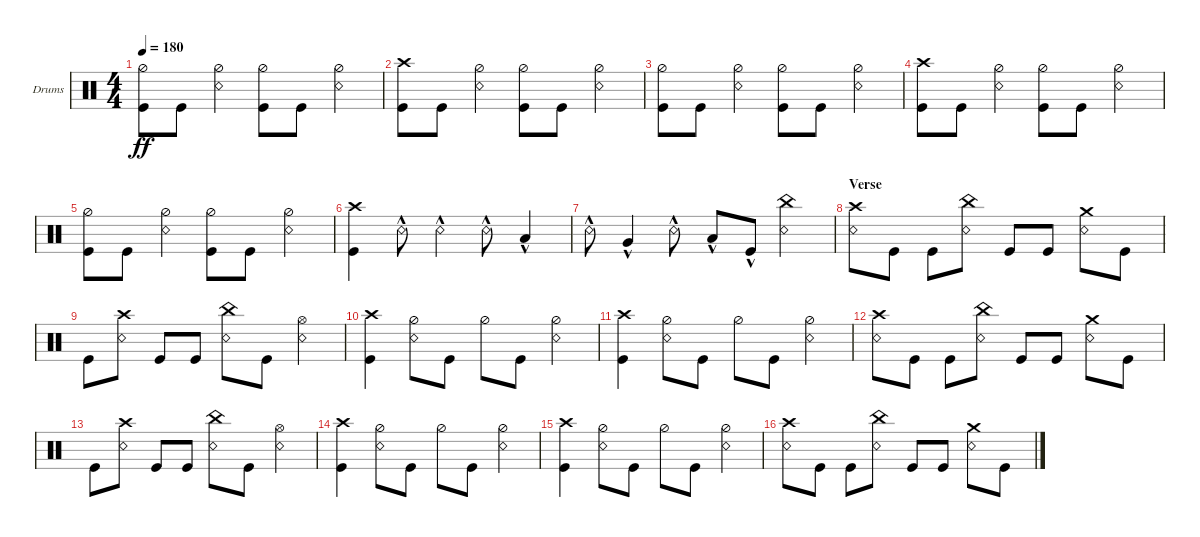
\defaultSystemsLayout 4
\bracketExtendMode groupsimilarinstruments
\firstSystemTrackNameOrientation horizontal
\otherSystemsTrackNameOrientation horizontal
\track ("Drumkit" "Drums") {instrument percussion}
\staff {score}
\articulation defaults
\ts (4 4)
\tempo 180
\clef neutral
\ks c
("Kick (hit)" "Hi-Hat (half)").8{dy ff} "Kick (hit)".8 ("Hi-Hat (half)" "Snare (rim shot)").4 ("Kick (hit)" "Hi-Hat (half)").8 "Kick (hit)".8 ("Hi-Hat (half)" "Snare (rim shot)").4 |
("Kick (hit)" "Crash high (hit)").8 "Kick (hit)".8 ("Hi-Hat (half)" "Snare (rim shot)").4 ("Kick (hit)" "Hi-Hat (half)").8 "Kick (hit)".8 ("Hi-Hat (half)" "Snare (rim shot)").4 |
("Kick (hit)" "Hi-Hat (half)").8 "Kick (hit)".8 ("Hi-Hat (half)" "Snare (rim shot)").4 ("Kick (hit)" "Hi-Hat (half)").8 "Kick (hit)".8 ("Hi-Hat (half)" "Snare (rim shot)").4 |
("Kick (hit)" "Crash high (hit)").8 "Kick (hit)".8 ("Hi-Hat (half)" "Snare (rim shot)").4 ("Kick (hit)" "Hi-Hat (half)").8 "Kick (hit)".8 ("Hi-Hat (half)" "Snare (rim shot)").4 |
("Kick (hit)" "Hi-Hat (half)").8 "Kick (hit)".8 ("Hi-Hat (half)" "Snare (rim shot)").4 ("Kick (hit)" "Hi-Hat (half)").8 "Kick (hit)".8 ("Hi-Hat (half)" "Snare (rim shot)").4 |
("Crash high (hit)" "Kick (hit)").4 "Snare (rim shot)"{hac}.8 "Snare (rim shot)"{hac}.4 "Snare (rim shot)"{hac}.8 "Low Tom (hit)"{hac}.4 |
"Snare (rim shot)"{hac}.8 "Very Low Tom (hit)"{hac}.4 "Snare (rim shot)"{hac}.8 "Low Tom (hit)"{hac}.8 "Kick (hit)"{hac}.8 ("Snare (rim shot)" "China (hit)").4 |
\section ("" "Verse")
("Crash high (hit)" "Snare (rim shot)").8 "Kick (hit)".8 "Kick (hit)".8 ("Snare (rim shot)" "China (hit)").8 "Kick (hit)".8 "Kick (hit)".8 ("Snare (rim shot)" "Crash medium (hit)").8 "Kick (hit)".8 |
"Kick (hit)".8 ("Snare (rim shot)" "Crash high (hit)").8 "Kick (hit)".8 "Kick (hit)".8 ("Snare (rim shot)" "China (hit)").8 "Kick (hit)".8 ("Snare (rim shot)" "Hi-Hat (open)").4 |
("Crash high (hit)" "Kick (hit)").4 ("Snare (rim shot)" "Hi-Hat (half)").8 "Kick (hit)".8 "Hi-Hat (half)".8 "Kick (hit)".8 ("Snare (rim shot)" "Hi-Hat (half)").4 |
("Crash high (hit)" "Kick (hit)").4 ("Snare (rim shot)" "Hi-Hat (half)").8 "Kick (hit)".8 "Hi-Hat (half)".8 "Kick (hit)".8 ("Snare (rim shot)" "Hi-Hat (half)").4 |
("Crash high (hit)" "Snare (rim shot)").8 "Kick (hit)".8 "Kick (hit)".8 ("Snare (rim shot)" "China (hit)").8 "Kick (hit)".8 "Kick (hit)".8 ("Snare (rim shot)" "Crash medium (hit)").8 "Kick (hit)".8 |
"Kick (hit)".8 ("Snare (rim shot)" "Crash high (hit)").8 "Kick (hit)".8 "Kick (hit)".8 ("Snare (rim shot)" "China (hit)").8 "Kick (hit)".8 ("Snare (rim shot)" "Hi-Hat (open)").4 |
("Crash high (hit)" "Kick (hit)").4 ("Snare (rim shot)" "Hi-Hat (half)").8 "Kick (hit)".8 "Hi-Hat (half)".8 "Kick (hit)".8 ("Snare (rim shot)" "Hi-Hat (half)").4 |
("Crash high (hit)" "Kick (hit)").4 ("Snare (rim shot)" "Hi-Hat (half)").8 "Kick (hit)".8 "Hi-Hat (half)".8 "Kick (hit)".8 ("Snare (rim shot)" "Hi-Hat (half)").4 |
("Crash high (hit)" "Snare (rim shot)").8 "Kick (hit)".8 "Kick (hit)".8 ("Snare (rim shot)" "China (hit)").8 "Kick (hit)".8 "Kick (hit)".8 ("Snare (rim shot)" "Crash medium (hit)").8 "Kick (hit)".8
